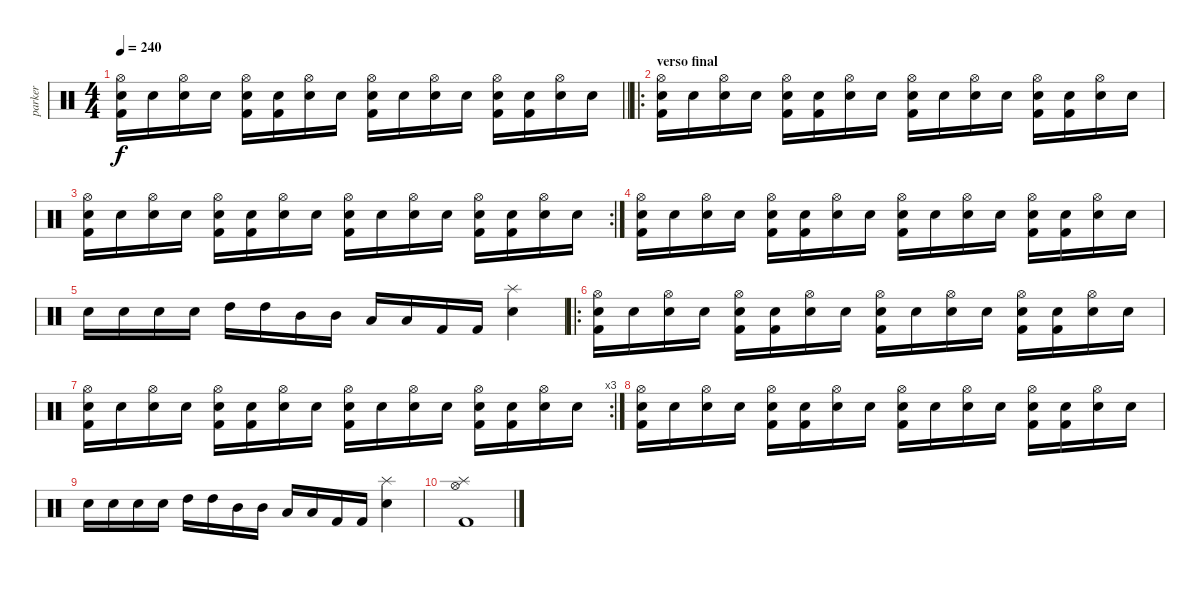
\track ("parker" "parker") {instrument percussion}
\staff {score}
\articulation defaults
\ts (4 4)
\tempo 240
\clef neutral
\barLineRight lightlight
\ks c
("Hi-Hat (open)" "Kick (hit) 2" "Snare (hit)").16{dy f} "Snare (hit)".16 ("Hi-Hat (open)" "Electric Snare (hit)").16 "Snare (hit)".16 ("Hi-Hat (open)" "Kick (hit) 2" "Snare (hit)").16 ("Kick (hit) 2" "Snare (hit)").16 ("Hi-Hat (open)" "Electric Snare (hit)").16 "Snare (hit)".16 ("Hi-Hat (open)" "Kick (hit) 2" "Snare (hit)").16 "Snare (hit)".16 ("Hi-Hat (open)" "Electric Snare (hit)").16 "Snare (hit)".16 ("Hi-Hat (open)" "Kick (hit) 2" "Snare (hit)").16 ("Kick (hit) 2" "Snare (hit)").16 ("Hi-Hat (open)" "Electric Snare (hit)").16 "Snare (hit)".16 |
\ro
\section ("" "verso final")
("Hi-Hat (open)" "Kick (hit) 2" "Snare (hit)").16 "Snare (hit)".16 ("Hi-Hat (open)" "Electric Snare (hit)").16 "Snare (hit)".16 ("Hi-Hat (open)" "Kick (hit) 2" "Snare (hit)").16 ("Kick (hit) 2" "Snare (hit)").16 ("Hi-Hat (open)" "Electric Snare (hit)").16 "Snare (hit)".16 ("Hi-Hat (open)" "Kick (hit) 2" "Snare (hit)").16 "Snare (hit)".16 ("Hi-Hat (open)" "Electric Snare (hit)").16 "Snare (hit)".16 ("Hi-Hat (open)" "Kick (hit) 2" "Snare (hit)").16 ("Kick (hit) 2" "Snare (hit)").16 ("Hi-Hat (open)" "Electric Snare (hit)").16 "Snare (hit)".16 |
\rc 2
("Hi-Hat (open)" "Kick (hit) 2" "Snare (hit)").16 "Snare (hit)".16 ("Hi-Hat (open)" "Electric Snare (hit)").16 "Snare (hit)".16 ("Hi-Hat (open)" "Kick (hit) 2" "Snare (hit)").16 ("Kick (hit) 2" "Snare (hit)").16 ("Hi-Hat (open)" "Electric Snare (hit)").16 "Snare (hit)".16 ("Hi-Hat (open)" "Kick (hit) 2" "Snare (hit)").16 "Snare (hit)".16 ("Hi-Hat (open)" "Electric Snare (hit)").16 "Snare (hit)".16 ("Hi-Hat (open)" "Kick (hit) 2" "Snare (hit)").16 ("Kick (hit) 2" "Snare (hit)").16 ("Hi-Hat (open)" "Electric Snare (hit)").16 "Snare (hit)".16 |
("Hi-Hat (open)" "Kick (hit) 2" "Snare (hit)").16 "Snare (hit)".16 ("Hi-Hat (open)" "Electric Snare (hit)").16 "Snare (hit)".16 ("Hi-Hat (open)" "Kick (hit) 2" "Snare (hit)").16 ("Kick (hit) 2" "Snare (hit)").16 ("Hi-Hat (open)" "Electric Snare (hit)").16 "Snare (hit)".16 ("Hi-Hat (open)" "Kick (hit) 2" "Snare (hit)").16 "Snare (hit)".16 ("Hi-Hat (open)" "Electric Snare (hit)").16 "Snare (hit)".16 ("Hi-Hat (open)" "Kick (hit) 2" "Snare (hit)").16 ("Kick (hit) 2" "Snare (hit)").16 ("Hi-Hat (open)" "Electric Snare (hit)").16 "Snare (hit)".16 |
"Electric Snare (hit)".16 "Electric Snare (hit)".16 "Electric Snare (hit)".16 "Electric Snare (hit)".16 "High Tom (hit)".16 "High Tom (hit)".16 "Mid Tom (hit)".16 "Mid Tom (hit)".16 "Low Tom (hit)".16 "Low Tom (hit)".16 "Kick (hit) 2".16 "Kick (hit) 2".16 ("Splash (hit)" "Electric Snare (hit)").4 |
\ro
("Hi-Hat (open)" "Kick (hit) 2" "Snare (hit)").16 "Snare (hit)".16 ("Hi-Hat (open)" "Electric Snare (hit)").16 "Snare (hit)".16 ("Hi-Hat (open)" "Kick (hit) 2" "Snare (hit)").16 ("Kick (hit) 2" "Snare (hit)").16 ("Hi-Hat (open)" "Electric Snare (hit)").16 "Snare (hit)".16 ("Hi-Hat (open)" "Kick (hit) 2" "Snare (hit)").16 "Snare (hit)".16 ("Hi-Hat (open)" "Electric Snare (hit)").16 "Snare (hit)".16 ("Hi-Hat (open)" "Kick (hit) 2" "Snare (hit)").16 ("Kick (hit) 2" "Snare (hit)").16 ("Hi-Hat (open)" "Electric Snare (hit)").16 "Snare (hit)".16 |
\rc 3
("Hi-Hat (open)" "Kick (hit) 2" "Snare (hit)").16 "Snare (hit)".16 ("Hi-Hat (open)" "Electric Snare (hit)").16 "Snare (hit)".16 ("Hi-Hat (open)" "Kick (hit) 2" "Snare (hit)").16 ("Kick (hit) 2" "Snare (hit)").16 ("Hi-Hat (open)" "Electric Snare (hit)").16 "Snare (hit)".16 ("Hi-Hat (open)" "Kick (hit) 2" "Snare (hit)").16 "Snare (hit)".16 ("Hi-Hat (open)" "Electric Snare (hit)").16 "Snare (hit)".16 ("Hi-Hat (open)" "Kick (hit) 2" "Snare (hit)").16 ("Kick (hit) 2" "Snare (hit)").16 ("Hi-Hat (open)" "Electric Snare (hit)").16 "Snare (hit)".16 |
("Hi-Hat (open)" "Kick (hit) 2" "Snare (hit)").16 "Snare (hit)".16 ("Hi-Hat (open)" "Electric Snare (hit)").16 "Snare (hit)".16 ("Hi-Hat (open)" "Kick (hit) 2" "Snare (hit)").16 ("Kick (hit) 2" "Snare (hit)").16 ("Hi-Hat (open)" "Electric Snare (hit)").16 "Snare (hit)".16 ("Hi-Hat (open)" "Kick (hit) 2" "Snare (hit)").16 "Snare (hit)".16 ("Hi-Hat (open)" "Electric Snare (hit)").16 "Snare (hit)".16 ("Hi-Hat (open)" "Kick (hit) 2" "Snare (hit)").16 ("Kick (hit) 2" "Snare (hit)").16 ("Hi-Hat (open)" "Electric Snare (hit)").16 "Snare (hit)".16 |
"Electric Snare (hit)".16 "Electric Snare (hit)".16 "Electric Snare (hit)".16 "Electric Snare (hit)".16 "High Tom (hit)".16 "High Tom (hit)".16 "Mid Tom (hit)".16 "Mid Tom (hit)".16 "Low Tom (hit)".16 "Low Tom (hit)".16 "Kick (hit) 2".16 "Kick (hit) 2".16 ("Splash (hit)" "Electric Snare (hit)").4 |
("Splash (hit)" "Hi-Hat (open)" "Kick (hit) 2").1
